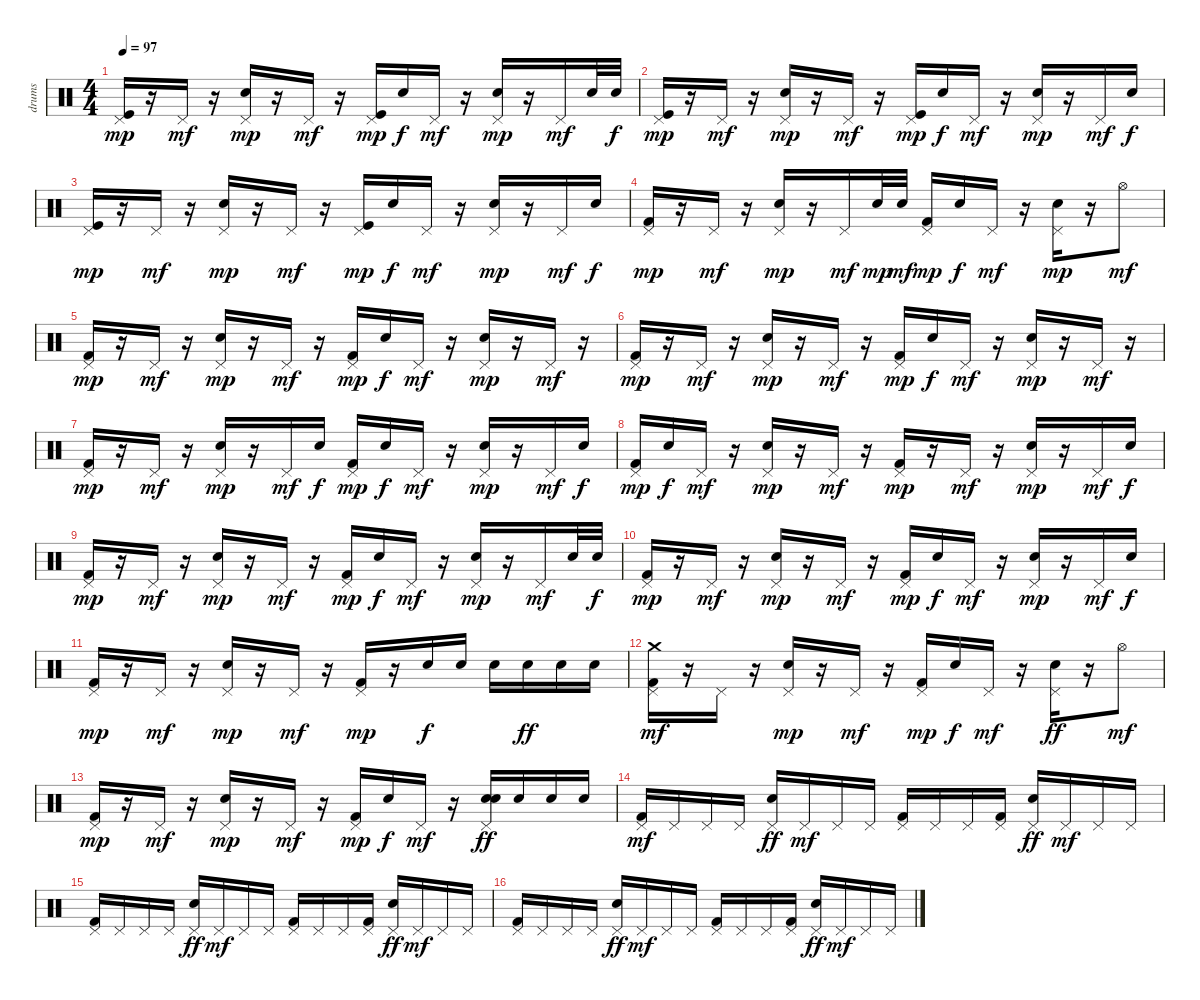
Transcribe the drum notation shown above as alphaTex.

\track ("drums" "drums") {instrument percussion}
\staff {score}
\articulation defaults
\ts (4 4)
\tempo 97
\clef neutral
\ks c
("Kick (hit)" "Pedal Hi-Hat (hit)").16{dy mp} r.16 "Pedal Hi-Hat (hit)".16{dy mf} r.16 ("Electric Snare (hit)" "Pedal Hi-Hat (hit)").16{dy mp} r.16 "Pedal Hi-Hat (hit)".16{dy mf} r.16 ("Pedal Hi-Hat (hit)" "Kick (hit)").16{dy mp} "Electric Snare (hit)".16{dy f} "Pedal Hi-Hat (hit)".16{dy mf} r.16 ("Electric Snare (hit)" "Pedal Hi-Hat (hit)").16{dy mp} r.16 "Pedal Hi-Hat (hit)".16{dy mf} "Electric Snare (hit)".32 "Electric Snare (hit)".32{dy f} |
("Kick (hit)" "Pedal Hi-Hat (hit)").16{dy mp} r.16 "Pedal Hi-Hat (hit)".16{dy mf} r.16 ("Electric Snare (hit)" "Pedal Hi-Hat (hit)").16{dy mp} r.16 "Pedal Hi-Hat (hit)".16{dy mf} r.16 ("Pedal Hi-Hat (hit)" "Kick (hit)").16{dy mp} "Electric Snare (hit)".16{dy f} "Pedal Hi-Hat (hit)".16{dy mf} r.16 ("Electric Snare (hit)" "Pedal Hi-Hat (hit)").16{dy mp} r.16 "Pedal Hi-Hat (hit)".16{dy mf} "Electric Snare (hit)".16{dy f} |
("Kick (hit)" "Pedal Hi-Hat (hit)").16{dy mp} r.16 "Pedal Hi-Hat (hit)".16{dy mf} r.16 ("Electric Snare (hit)" "Pedal Hi-Hat (hit)").16{dy mp} r.16 "Pedal Hi-Hat (hit)".16{dy mf} r.16 ("Pedal Hi-Hat (hit)" "Kick (hit)").16{dy mp} "Electric Snare (hit)".16{dy f} "Pedal Hi-Hat (hit)".16{dy mf} r.16 ("Electric Snare (hit)" "Pedal Hi-Hat (hit)").16{dy mp} r.16 "Pedal Hi-Hat (hit)".16{dy mf} "Electric Snare (hit)".16{dy f} |
("Pedal Hi-Hat (hit)" "Kick (hit) 2").16{dy mp} r.16 "Pedal Hi-Hat (hit)".16{dy mf} r.16 ("Electric Snare (hit)" "Pedal Hi-Hat (hit)").16{dy mp} r.16 "Pedal Hi-Hat (hit)".16{dy mf} "Electric Snare (hit)".32{dy mp} "Electric Snare (hit)".32{dy mf} ("Kick (hit) 2" "Pedal Hi-Hat (hit)").16{dy mp} "Electric Snare (hit)".16{dy f} "Pedal Hi-Hat (hit)".16{dy mf} r.16 ("Electric Snare (hit)" "Pedal Hi-Hat (hit)").16{dy mp} r.16 "Hi-Hat (open)".8{dy mf} |
("Pedal Hi-Hat (hit)" "Kick (hit) 2").16{dy mp} r.16 "Pedal Hi-Hat (hit)".16{dy mf} r.16 ("Electric Snare (hit)" "Pedal Hi-Hat (hit)").16{dy mp} r.16 "Pedal Hi-Hat (hit)".16{dy mf} r.16 ("Kick (hit) 2" "Pedal Hi-Hat (hit)").16{dy mp} "Electric Snare (hit)".16{dy f} "Pedal Hi-Hat (hit)".16{dy mf} r.16 ("Electric Snare (hit)" "Pedal Hi-Hat (hit)").16{dy mp} r.16 "Pedal Hi-Hat (hit)".16{dy mf} r.16 |
("Pedal Hi-Hat (hit)" "Kick (hit) 2").16{dy mp} r.16 "Pedal Hi-Hat (hit)".16{dy mf} r.16 ("Electric Snare (hit)" "Pedal Hi-Hat (hit)").16{dy mp} r.16 "Pedal Hi-Hat (hit)".16{dy mf} r.16 ("Kick (hit) 2" "Pedal Hi-Hat (hit)").16{dy mp} "Electric Snare (hit)".16{dy f} "Pedal Hi-Hat (hit)".16{dy mf} r.16 ("Electric Snare (hit)" "Pedal Hi-Hat (hit)").16{dy mp} r.16 "Pedal Hi-Hat (hit)".16{dy mf} r.16 |
("Pedal Hi-Hat (hit)" "Kick (hit) 2").16{dy mp} r.16 "Pedal Hi-Hat (hit)".16{dy mf} r.16 ("Electric Snare (hit)" "Pedal Hi-Hat (hit)").16{dy mp} r.16 "Pedal Hi-Hat (hit)".16{dy mf} "Electric Snare (hit)".16{dy f} ("Kick (hit) 2" "Pedal Hi-Hat (hit)").16{dy mp} "Electric Snare (hit)".16{dy f} "Pedal Hi-Hat (hit)".16{dy mf} r.16 ("Electric Snare (hit)" "Pedal Hi-Hat (hit)").16{dy mp} r.16 "Pedal Hi-Hat (hit)".16{dy mf} "Electric Snare (hit)".16{dy f} |
("Pedal Hi-Hat (hit)" "Kick (hit) 2").16{dy mp} "Electric Snare (hit)".16{dy f} "Pedal Hi-Hat (hit)".16{dy mf} r.16 ("Electric Snare (hit)" "Pedal Hi-Hat (hit)").16{dy mp} r.16 "Pedal Hi-Hat (hit)".16{dy mf} r.16 ("Kick (hit) 2" "Pedal Hi-Hat (hit)").16{dy mp} r.16 "Pedal Hi-Hat (hit)".16{dy mf} r.16 ("Electric Snare (hit)" "Pedal Hi-Hat (hit)").16{dy mp} r.16 "Pedal Hi-Hat (hit)".16{dy mf} "Electric Snare (hit)".16{dy f} |
("Pedal Hi-Hat (hit)" "Kick (hit) 2").16{dy mp} r.16 "Pedal Hi-Hat (hit)".16{dy mf} r.16 ("Electric Snare (hit)" "Pedal Hi-Hat (hit)").16{dy mp} r.16 "Pedal Hi-Hat (hit)".16{dy mf} r.16 ("Kick (hit) 2" "Pedal Hi-Hat (hit)").16{dy mp} "Electric Snare (hit)".16{dy f} "Pedal Hi-Hat (hit)".16{dy mf} r.16 ("Electric Snare (hit)" "Pedal Hi-Hat (hit)").16{dy mp} r.16 "Pedal Hi-Hat (hit)".16{dy mf} "Electric Snare (hit)".32 "Electric Snare (hit)".32{dy f} |
("Pedal Hi-Hat (hit)" "Kick (hit) 2").16{dy mp} r.16 "Pedal Hi-Hat (hit)".16{dy mf} r.16 ("Electric Snare (hit)" "Pedal Hi-Hat (hit)").16{dy mp} r.16 "Pedal Hi-Hat (hit)".16{dy mf} r.16 ("Kick (hit) 2" "Pedal Hi-Hat (hit)").16{dy mp} "Electric Snare (hit)".16{dy f} "Pedal Hi-Hat (hit)".16{dy mf} r.16 ("Electric Snare (hit)" "Pedal Hi-Hat (hit)").16{dy mp} r.16 "Pedal Hi-Hat (hit)".16{dy mf} "Electric Snare (hit)".16{dy f} |
("Pedal Hi-Hat (hit)" "Kick (hit) 2").16{dy mp} r.16 "Pedal Hi-Hat (hit)".16{dy mf} r.16 ("Electric Snare (hit)" "Pedal Hi-Hat (hit)").16{dy mp} r.16 "Pedal Hi-Hat (hit)".16{dy mf} r.16 ("Kick (hit) 2" "Pedal Hi-Hat (hit)").16{dy mp} r.16 "Electric Snare (hit)".16{dy f} "Electric Snare (hit)".16 "Electric Snare (hit)".16 "Electric Snare (hit)".16{dy ff} "Electric Snare (hit)".16 "Electric Snare (hit)".16 |
("Kick (hit) 2" "Pedal Hi-Hat (hit)" "Crash medium (hit)").16{dy mf} r.16 "Pedal Hi-Hat (hit)".16 r.16 ("Electric Snare (hit)" "Pedal Hi-Hat (hit)").16{dy mp} r.16 "Pedal Hi-Hat (hit)".16{dy mf} r.16 ("Pedal Hi-Hat (hit)" "Kick (hit) 2").16{dy mp} "Electric Snare (hit)".16{dy f} "Pedal Hi-Hat (hit)".16{dy mf} r.16 ("Pedal Hi-Hat (hit)" "Electric Snare (hit)").16{dy ff} r.16 "Hi-Hat (open)".8{dy mf} |
("Kick (hit) 2" "Pedal Hi-Hat (hit)").16{dy mp} r.16 "Pedal Hi-Hat (hit)".16{dy mf} r.16 ("Electric Snare (hit)" "Pedal Hi-Hat (hit)").16{dy mp} r.16 "Pedal Hi-Hat (hit)".16{dy mf} r.16 ("Pedal Hi-Hat (hit)" "Kick (hit) 2").16{dy mp} "Electric Snare (hit)".16{dy f} "Pedal Hi-Hat (hit)".16{dy mf} r.16 ("Pedal Hi-Hat (hit)" "Electric Snare (hit)" "Electric Snare (hit)").16{dy ff} "Electric Snare (hit)".16 "Electric Snare (hit)".16 "Electric Snare (hit)".16 |
("Pedal Hi-Hat (hit)" "Kick (hit) 2").16{dy mf} "Pedal Hi-Hat (hit)".16 "Pedal Hi-Hat (hit)".16 "Pedal Hi-Hat (hit)".16 ("Pedal Hi-Hat (hit)" "Electric Snare (hit)").16{dy ff} "Pedal Hi-Hat (hit)".16{dy mf} "Pedal Hi-Hat (hit)".16 "Pedal Hi-Hat (hit)".16 ("Pedal Hi-Hat (hit)" "Kick (hit) 2").16 "Pedal Hi-Hat (hit)".16 "Pedal Hi-Hat (hit)".16 ("Kick (hit) 2" "Pedal Hi-Hat (hit)").16 ("Pedal Hi-Hat (hit)" "Electric Snare (hit)").16{dy ff} "Pedal Hi-Hat (hit)".16{dy mf} "Pedal Hi-Hat (hit)".16 "Pedal Hi-Hat (hit)".16 |
("Pedal Hi-Hat (hit)" "Kick (hit) 2").16 "Pedal Hi-Hat (hit)".16 "Pedal Hi-Hat (hit)".16 "Pedal Hi-Hat (hit)".16 ("Pedal Hi-Hat (hit)" "Electric Snare (hit)").16{dy ff} "Pedal Hi-Hat (hit)".16{dy mf} "Pedal Hi-Hat (hit)".16 "Pedal Hi-Hat (hit)".16 ("Pedal Hi-Hat (hit)" "Kick (hit) 2").16 "Pedal Hi-Hat (hit)".16 "Pedal Hi-Hat (hit)".16 ("Kick (hit) 2" "Pedal Hi-Hat (hit)").16 ("Pedal Hi-Hat (hit)" "Electric Snare (hit)").16{dy ff} "Pedal Hi-Hat (hit)".16{dy mf} "Pedal Hi-Hat (hit)".16 "Pedal Hi-Hat (hit)".16 |
("Pedal Hi-Hat (hit)" "Kick (hit) 2").16 "Pedal Hi-Hat (hit)".16 "Pedal Hi-Hat (hit)".16 "Pedal Hi-Hat (hit)".16 ("Pedal Hi-Hat (hit)" "Electric Snare (hit)").16{dy ff} "Pedal Hi-Hat (hit)".16{dy mf} "Pedal Hi-Hat (hit)".16 "Pedal Hi-Hat (hit)".16 ("Pedal Hi-Hat (hit)" "Kick (hit) 2").16 "Pedal Hi-Hat (hit)".16 "Pedal Hi-Hat (hit)".16 ("Kick (hit) 2" "Pedal Hi-Hat (hit)").16 ("Pedal Hi-Hat (hit)" "Electric Snare (hit)").16{dy ff} "Pedal Hi-Hat (hit)".16{dy mf} "Pedal Hi-Hat (hit)".16 "Pedal Hi-Hat (hit)".16
